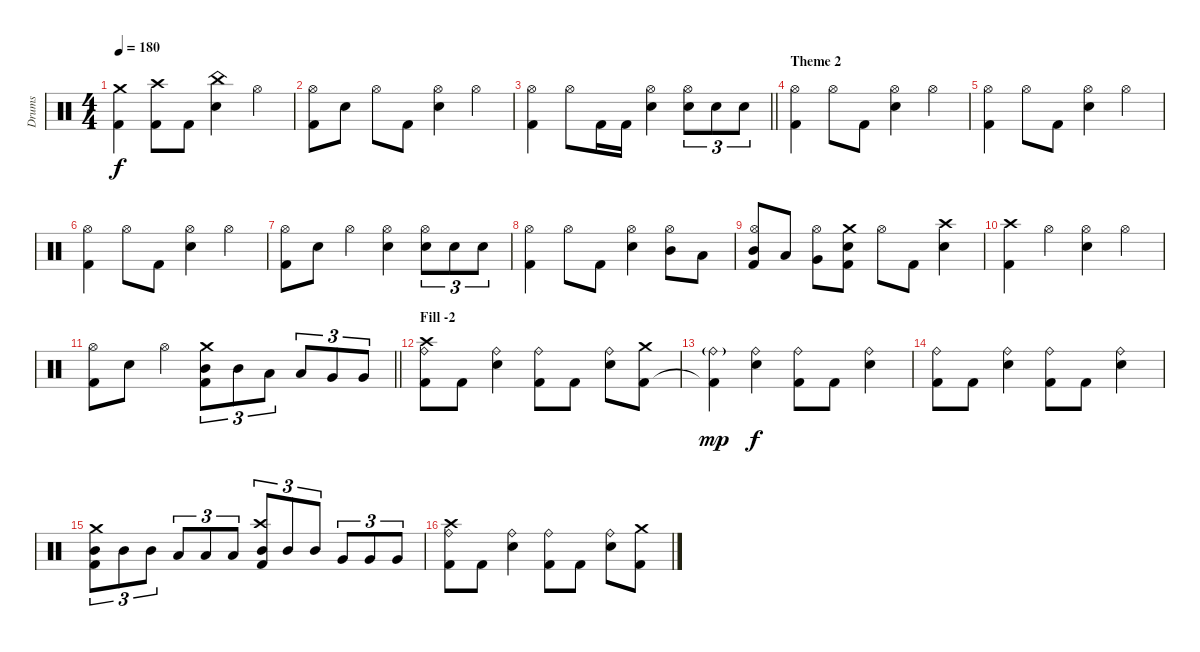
\track ("Drums" "Drums") {instrument percussion}
\staff {score}
\articulation defaults
\ts (4 4)
\tempo 180
\clef neutral
\ks c
("Crash medium (hit)" "Kick (hit) 2").4{dy f} ("Crash high (hit)" "Kick (hit) 2").8 "Kick (hit) 2".8 ("China (hit)" "Snare (hit) 2").4 "Hi-Hat (open)".4 |
("Hi-Hat (open)" "Kick (hit) 2").8 "Snare (hit) 2".8 "Hi-Hat (open)".8 "Kick (hit) 2".8 ("Hi-Hat (open)" "Snare (hit) 2").4 "Hi-Hat (open)".4 |
\barLineRight lightlight
("Hi-Hat (open)" "Kick (hit) 2").4 "Hi-Hat (open)".8 "Kick (hit) 2".16 "Kick (hit) 2".16 ("Hi-Hat (open)" "Snare (hit) 2").4 ("Hi-Hat (open)" "Snare (hit) 2").8{tu (3 2)} "Snare (hit) 2".8{tu (3 2)} "Snare (hit) 2".8{tu (3 2)} |
\section ("" "Theme 2")
("Hi-Hat (open)" "Kick (hit) 2").4 "Hi-Hat (open)".8 "Kick (hit) 2".8 ("Hi-Hat (open)" "Snare (hit) 2").4 "Hi-Hat (open)".4 |
("Hi-Hat (open)" "Kick (hit) 2").4 "Hi-Hat (open)".8 "Kick (hit) 2".8 ("Hi-Hat (open)" "Snare (hit) 2").4 "Hi-Hat (open)".4 |
("Hi-Hat (open)" "Kick (hit) 2").4 "Hi-Hat (open)".8 "Kick (hit) 2".8 ("Hi-Hat (open)" "Snare (hit) 2").4 "Hi-Hat (open)".4 |
("Hi-Hat (open)" "Kick (hit) 2").8 "Snare (hit) 2".8 "Hi-Hat (open)".4 ("Hi-Hat (open)" "Snare (hit) 2").4 ("Hi-Hat (open)" "Snare (hit) 2").8{tu (3 2)} "Snare (hit) 2".8{tu (3 2)} "Snare (hit) 2".8{tu (3 2)} |
("Hi-Hat (open)" "Kick (hit) 2").4 "Hi-Hat (open)".8 "Kick (hit) 2".8 ("Hi-Hat (open)" "Snare (hit) 2").4 ("Hi-Hat (open)" "Mid Tom (hit)").8 "Low Tom (hit)".8 |
("Hi-Hat (open)" "Mid Tom (hit)" "Kick (hit) 2").8 "Low Tom (hit)".8 ("Hi-Hat (open)" "Very Low Tom (hit)").8 ("Crash medium (hit)" "Snare (hit) 2" "Kick (hit) 2").8 "Hi-Hat (open)".8 "Kick (hit) 2".8 ("Crash high (hit)" "Snare (hit) 2").4 |
("Crash high (hit)" "Kick (hit) 2").4 "Hi-Hat (open)".4 ("Hi-Hat (open)" "Snare (hit) 2").4 "Hi-Hat (open)".4 |
\barLineRight lightlight
("Hi-Hat (open)" "Kick (hit) 2").8 "Snare (hit) 2".8 "Hi-Hat (open)".4 ("Crash medium (hit)" "Mid Tom (hit)" "Kick (hit) 2").8{tu (3 2)} "Mid Tom (hit)".8{tu (3 2)} "Low Tom (hit)".8{tu (3 2)} "Low Tom (hit)".8{tu (3 2)} "Very Low Tom (hit)".8{tu (3 2)} "Very Low Tom (hit)".8{tu (3 2)} |
\section ("" "Fill -2")
("Ride (bell)" "Crash high (hit)" "Kick (hit) 2").8 "Kick (hit) 2".8 ("Ride (bell)" "Snare (hit) 2").4 ("Ride (bell)" "Kick (hit) 2").8 "Kick (hit) 2".8 ("Ride (bell)" "Snare (hit) 2").8 ("Crash medium (hit)" "Kick (hit) 2").8 |
("Ride (bell)"{g} "Kick (hit) 2"{t}).4{dy mp} ("Ride (bell)" "Snare (hit) 2").4{dy f} ("Ride (bell)" "Kick (hit) 2").8 "Kick (hit) 2".8 ("Ride (bell)" "Snare (hit) 2").4 |
("Ride (bell)" "Kick (hit) 2").8 "Kick (hit) 2".8 ("Ride (bell)" "Snare (hit) 2").4 ("Ride (bell)" "Kick (hit) 2").8 "Kick (hit) 2".8 ("Ride (bell)" "Snare (hit) 2").4 |
("Crash medium (hit)" "Mid Tom (hit)" "Kick (hit) 2").8{tu (3 2)} "Mid Tom (hit)".8{tu (3 2)} "Mid Tom (hit)".8{tu (3 2)} "Low Tom (hit)".8{tu (3 2)} "Low Tom (hit)".8{tu (3 2)} "Low Tom (hit)".8{tu (3 2)} ("Crash high (hit)" "Mid Tom (hit)" "Kick (hit) 2").8{tu (3 2)} "Mid Tom (hit)".8{tu (3 2)} "Mid Tom (hit)".8{tu (3 2)} "Very Low Tom (hit)".8{tu (3 2)} "Very Low Tom (hit)".8{tu (3 2)} "Very Low Tom (hit)".8{tu (3 2)} |
("Ride (bell)" "Crash high (hit)" "Kick (hit) 2").8 "Kick (hit) 2".8 ("Ride (bell)" "Snare (hit) 2").4 ("Ride (bell)" "Kick (hit) 2").8 "Kick (hit) 2".8 ("Ride (bell)" "Snare (hit) 2").8 ("Crash medium (hit)" "Kick (hit) 2").8
